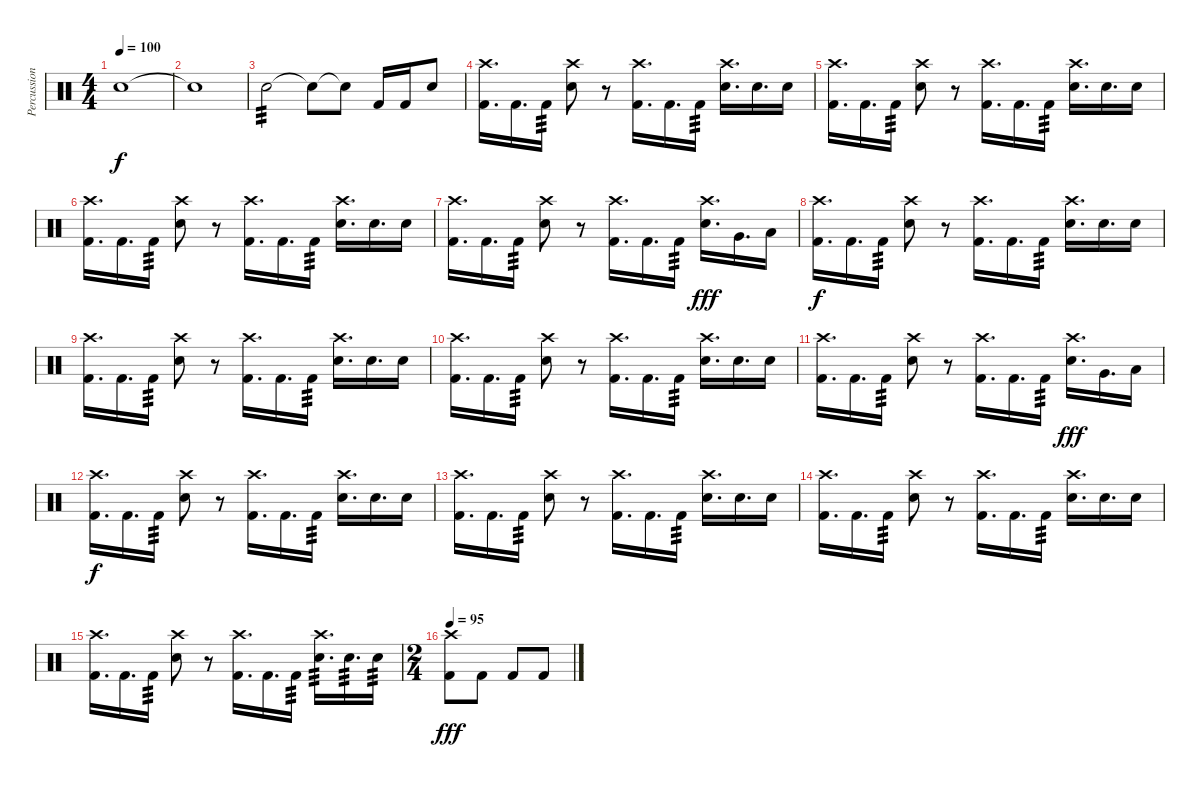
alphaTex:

\track ("Percussion" "Percussion") {instrument percussion}
\staff {score}
\articulation defaults
\ts (4 4)
\tempo 100
\clef neutral
\ks c "Snare (hit)"{t}.1{dy f}
|
"Snare (hit)"{t}.1 |
"Electric Snare (hit)".2{tp 3} "Snare (hit)"{t}.8 "Snare (hit)"{t}.8 "Kick (hit) 2".16 "Kick (hit) 2".16 "Electric Snare (hit)".8 |
("Crash high (hit)" "Kick (hit) 2").16{d} "Kick (hit) 2".16{d} "Kick (hit) 2".16{tp 3} ("Crash high (hit)" "Electric Snare (hit)").8 r.8 ("Crash high (hit)" "Kick (hit) 2").16{d} "Kick (hit) 2".16{d} "Kick (hit) 2".16{tp 3} ("Crash high (hit)" "Electric Snare (hit)").16{d} "Electric Snare (hit)".16{d} "Electric Snare (hit)".16 |
("Crash high (hit)" "Kick (hit) 2").16{d} "Kick (hit) 2".16{d} "Kick (hit) 2".16{tp 3} ("Crash high (hit)" "Electric Snare (hit)").8 r.8 ("Crash high (hit)" "Kick (hit) 2").16{d} "Kick (hit) 2".16{d} "Kick (hit) 2".16{tp 3} ("Crash high (hit)" "Electric Snare (hit)").16{d} "Electric Snare (hit)".16{d} "Electric Snare (hit)".16 |
("Crash high (hit)" "Kick (hit) 2").16{d} "Kick (hit) 2".16{d} "Kick (hit) 2".16{tp 3} ("Crash high (hit)" "Electric Snare (hit)").8 r.8 ("Crash high (hit)" "Kick (hit) 2").16{d} "Kick (hit) 2".16{d} "Kick (hit) 2".16{tp 3} ("Crash high (hit)" "Electric Snare (hit)").16{d} "Electric Snare (hit)".16{d} "Electric Snare (hit)".16 |
("Crash high (hit)" "Kick (hit) 2").16{d} "Kick (hit) 2".16{d} "Kick (hit) 2".16{tp 3} ("Crash high (hit)" "Electric Snare (hit)").8 r.8 ("Crash high (hit)" "Kick (hit) 2").16{d} "Kick (hit) 2".16{d} "Kick (hit) 2".16{tp 3} ("Crash high (hit)" "Electric Snare (hit)").16{d dy fff} "Very Low Tom (hit)".16{d} "Low Floor Tom (hit)".16 |
("Crash high (hit)" "Kick (hit) 2").16{d dy f} "Kick (hit) 2".16{d} "Kick (hit) 2".16{tp 3} ("Crash high (hit)" "Electric Snare (hit)").8 r.8 ("Crash high (hit)" "Kick (hit) 2").16{d} "Kick (hit) 2".16{d} "Kick (hit) 2".16{tp 3} ("Crash high (hit)" "Electric Snare (hit)").16{d} "Electric Snare (hit)".16{d} "Electric Snare (hit)".16 |
("Crash high (hit)" "Kick (hit) 2").16{d} "Kick (hit) 2".16{d} "Kick (hit) 2".16{tp 3} ("Crash high (hit)" "Electric Snare (hit)").8 r.8 ("Crash high (hit)" "Kick (hit) 2").16{d} "Kick (hit) 2".16{d} "Kick (hit) 2".16{tp 3} ("Crash high (hit)" "Electric Snare (hit)").16{d} "Electric Snare (hit)".16{d} "Electric Snare (hit)".16 |
("Crash high (hit)" "Kick (hit) 2").16{d} "Kick (hit) 2".16{d} "Kick (hit) 2".16{tp 3} ("Crash high (hit)" "Electric Snare (hit)").8 r.8 ("Crash high (hit)" "Kick (hit) 2").16{d} "Kick (hit) 2".16{d} "Kick (hit) 2".16{tp 3} ("Crash high (hit)" "Electric Snare (hit)").16{d} "Electric Snare (hit)".16{d} "Electric Snare (hit)".16 |
("Crash high (hit)" "Kick (hit) 2").16{d} "Kick (hit) 2".16{d} "Kick (hit) 2".16{tp 3} ("Crash high (hit)" "Electric Snare (hit)").8 r.8 ("Crash high (hit)" "Kick (hit) 2").16{d} "Kick (hit) 2".16{d} "Kick (hit) 2".16{tp 3} ("Crash high (hit)" "Electric Snare (hit)").16{d dy fff} "Very Low Tom (hit)".16{d} "Low Floor Tom (hit)".16 |
("Crash high (hit)" "Kick (hit) 2").16{d dy f} "Kick (hit) 2".16{d} "Kick (hit) 2".16{tp 3} ("Crash high (hit)" "Electric Snare (hit)").8 r.8 ("Crash high (hit)" "Kick (hit) 2").16{d} "Kick (hit) 2".16{d} "Kick (hit) 2".16{tp 3} ("Crash high (hit)" "Electric Snare (hit)").16{d} "Electric Snare (hit)".16{d} "Electric Snare (hit)".16 |
("Crash high (hit)" "Kick (hit) 2").16{d} "Kick (hit) 2".16{d} "Kick (hit) 2".16{tp 3} ("Crash high (hit)" "Electric Snare (hit)").8 r.8 ("Crash high (hit)" "Kick (hit) 2").16{d} "Kick (hit) 2".16{d} "Kick (hit) 2".16{tp 3} ("Crash high (hit)" "Electric Snare (hit)").16{d} "Electric Snare (hit)".16{d} "Electric Snare (hit)".16 |
("Crash high (hit)" "Kick (hit) 2").16{d} "Kick (hit) 2".16{d} "Kick (hit) 2".16{tp 3} ("Crash high (hit)" "Electric Snare (hit)").8 r.8 ("Crash high (hit)" "Kick (hit) 2").16{d} "Kick (hit) 2".16{d} "Kick (hit) 2".16{tp 3} ("Crash high (hit)" "Electric Snare (hit)").16{d} "Electric Snare (hit)".16{d} "Electric Snare (hit)".16 |
("Crash high (hit)" "Kick (hit) 2").16{d} "Kick (hit) 2".16{d} "Kick (hit) 2".16{tp 3} ("Crash high (hit)" "Electric Snare (hit)").8 r.8 ("Crash high (hit)" "Kick (hit) 2").16{d} "Kick (hit) 2".16{d} "Kick (hit) 2".16{tp 3} ("Crash high (hit)" "Electric Snare (hit)").16{d tp 3} "Electric Snare (hit)".16{d tp 3} "Electric Snare (hit)".16{tp 3} |
\ts (2 4)
\tempo 95
("Crash high (hit)" "Kick (hit) 2").8{dy fff} "Kick (hit) 2".8 "Kick (hit) 2".8 "Kick (hit) 2".8
